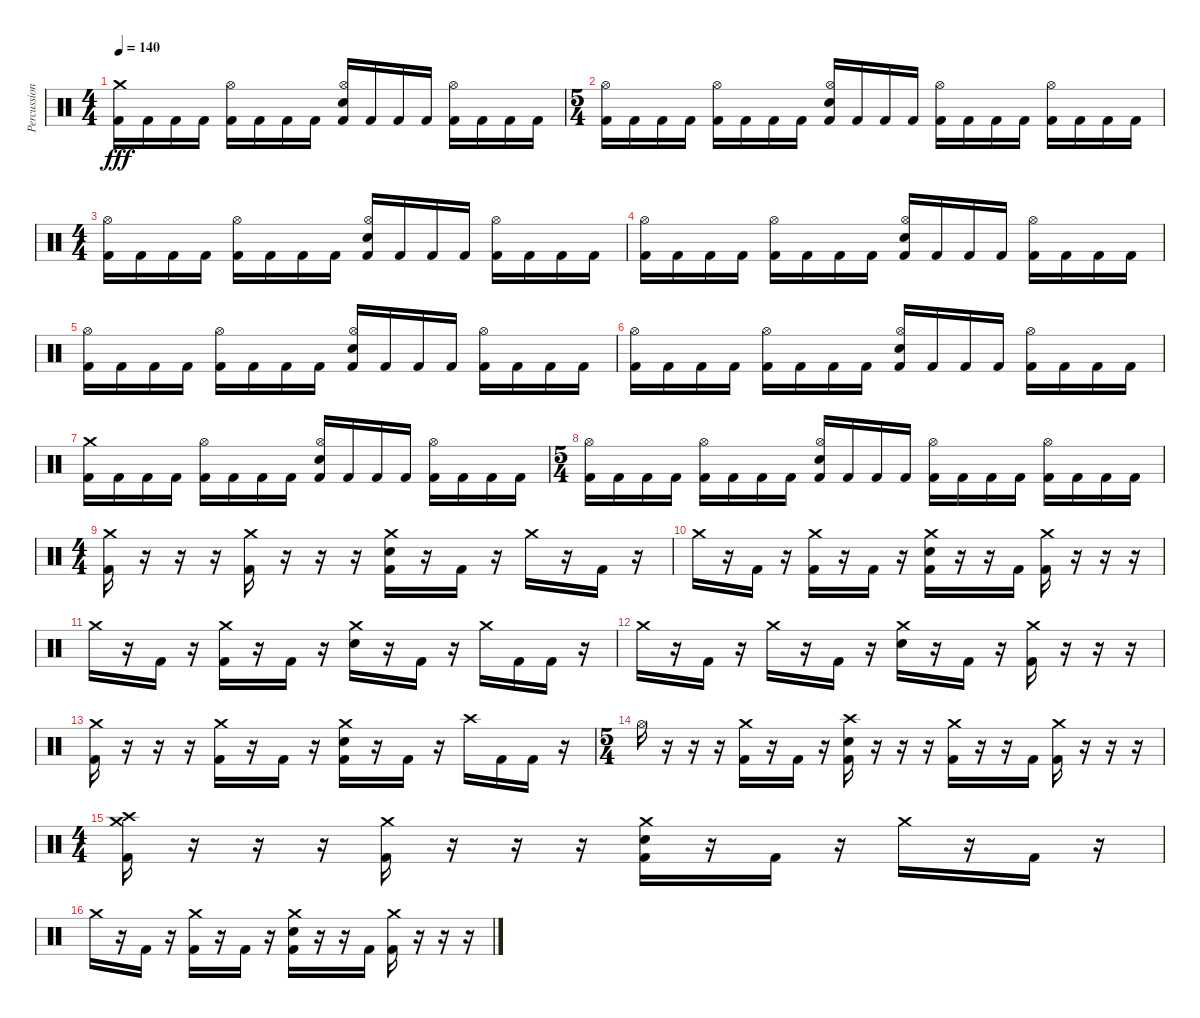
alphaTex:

\track ("Percussion" "Percussion") {instrument percussion bank 84}
\staff {score}
\articulation defaults
\ts (4 4)
\tempo 140
\clef neutral
\ks c
("Crash medium (hit)" "Kick (hit) 2").16{dy fff} "Kick (hit) 2".16 "Kick (hit) 2".16 "Kick (hit) 2".16 ("Hi-Hat (open)" "Kick (hit) 2").16 "Kick (hit) 2".16 "Kick (hit) 2".16 "Kick (hit) 2".16 ("Hi-Hat (open)" "Electric Snare (hit)" "Kick (hit) 2").16 "Kick (hit) 2".16 "Kick (hit) 2".16 "Kick (hit) 2".16 ("Hi-Hat (open)" "Kick (hit) 2").16 "Kick (hit) 2".16 "Kick (hit) 2".16 "Kick (hit) 2".16 |
\ts (5 4)
("Hi-Hat (open)" "Kick (hit) 2").16 "Kick (hit) 2".16 "Kick (hit) 2".16 "Kick (hit) 2".16 ("Hi-Hat (open)" "Kick (hit) 2").16 "Kick (hit) 2".16 "Kick (hit) 2".16 "Kick (hit) 2".16 ("Hi-Hat (open)" "Electric Snare (hit)" "Kick (hit) 2").16 "Kick (hit) 2".16 "Kick (hit) 2".16 "Kick (hit) 2".16 ("Hi-Hat (open)" "Kick (hit) 2").16 "Kick (hit) 2".16 "Kick (hit) 2".16 "Kick (hit) 2".16 ("Hi-Hat (open)" "Kick (hit) 2").16 "Kick (hit) 2".16 "Kick (hit) 2".16 "Kick (hit) 2".16 |
\ts (4 4)
("Hi-Hat (open)" "Kick (hit) 2").16 "Kick (hit) 2".16 "Kick (hit) 2".16 "Kick (hit) 2".16 ("Hi-Hat (open)" "Kick (hit) 2").16 "Kick (hit) 2".16 "Kick (hit) 2".16 "Kick (hit) 2".16 ("Hi-Hat (open)" "Electric Snare (hit)" "Kick (hit) 2").16 "Kick (hit) 2".16 "Kick (hit) 2".16 "Kick (hit) 2".16 ("Hi-Hat (open)" "Kick (hit) 2").16 "Kick (hit) 2".16 "Kick (hit) 2".16 "Kick (hit) 2".16 |
("Hi-Hat (open)" "Kick (hit) 2").16 "Kick (hit) 2".16 "Kick (hit) 2".16 "Kick (hit) 2".16 ("Hi-Hat (open)" "Kick (hit) 2").16 "Kick (hit) 2".16 "Kick (hit) 2".16 "Kick (hit) 2".16 ("Hi-Hat (open)" "Electric Snare (hit)" "Kick (hit) 2").16 "Kick (hit) 2".16 "Kick (hit) 2".16 "Kick (hit) 2".16 ("Hi-Hat (open)" "Kick (hit) 2").16 "Kick (hit) 2".16 "Kick (hit) 2".16 "Kick (hit) 2".16 |
("Hi-Hat (open)" "Kick (hit) 2").16 "Kick (hit) 2".16 "Kick (hit) 2".16 "Kick (hit) 2".16 ("Hi-Hat (open)" "Kick (hit) 2").16 "Kick (hit) 2".16 "Kick (hit) 2".16 "Kick (hit) 2".16 ("Hi-Hat (open)" "Electric Snare (hit)" "Kick (hit) 2").16 "Kick (hit) 2".16 "Kick (hit) 2".16 "Kick (hit) 2".16 ("Hi-Hat (open)" "Kick (hit) 2").16 "Kick (hit) 2".16 "Kick (hit) 2".16 "Kick (hit) 2".16 |
("Hi-Hat (open)" "Kick (hit) 2").16 "Kick (hit) 2".16 "Kick (hit) 2".16 "Kick (hit) 2".16 ("Hi-Hat (open)" "Kick (hit) 2").16 "Kick (hit) 2".16 "Kick (hit) 2".16 "Kick (hit) 2".16 ("Hi-Hat (open)" "Electric Snare (hit)" "Kick (hit) 2").16 "Kick (hit) 2".16 "Kick (hit) 2".16 "Kick (hit) 2".16 ("Hi-Hat (open)" "Kick (hit) 2").16 "Kick (hit) 2".16 "Kick (hit) 2".16 "Kick (hit) 2".16 |
("Crash medium (hit)" "Kick (hit) 2").16 "Kick (hit) 2".16 "Kick (hit) 2".16 "Kick (hit) 2".16 ("Hi-Hat (open)" "Kick (hit) 2").16 "Kick (hit) 2".16 "Kick (hit) 2".16 "Kick (hit) 2".16 ("Hi-Hat (open)" "Electric Snare (hit)" "Kick (hit) 2").16 "Kick (hit) 2".16 "Kick (hit) 2".16 "Kick (hit) 2".16 ("Hi-Hat (open)" "Kick (hit) 2").16 "Kick (hit) 2".16 "Kick (hit) 2".16 "Kick (hit) 2".16 |
\ts (5 4)
("Hi-Hat (open)" "Kick (hit) 2").16 "Kick (hit) 2".16 "Kick (hit) 2".16 "Kick (hit) 2".16 ("Hi-Hat (open)" "Kick (hit) 2").16 "Kick (hit) 2".16 "Kick (hit) 2".16 "Kick (hit) 2".16 ("Hi-Hat (open)" "Electric Snare (hit)" "Kick (hit) 2").16 "Kick (hit) 2".16 "Kick (hit) 2".16 "Kick (hit) 2".16 ("Hi-Hat (open)" "Kick (hit) 2").16 "Kick (hit) 2".16 "Kick (hit) 2".16 "Kick (hit) 2".16 ("Hi-Hat (open)" "Kick (hit) 2").16 "Kick (hit) 2".16 "Kick (hit) 2".16 "Kick (hit) 2".16 |
\ts (4 4)
("Crash medium (hit)" "Kick (hit) 2").16 r.16 r.16 r.16 ("Crash medium (hit)" "Kick (hit) 2").16 r.16 r.16 r.16 ("Crash medium (hit)" "Electric Snare (hit)" "Kick (hit) 2").16 r.16 "Kick (hit) 2".16 r.16 "Crash medium (hit)".16 r.16 "Kick (hit) 2".16 r.16 |
"Crash medium (hit)".16 r.16 "Kick (hit) 2".16 r.16 ("Crash medium (hit)" "Kick (hit) 2").16 r.16 "Kick (hit) 2".16 r.16 ("Crash medium (hit)" "Electric Snare (hit)" "Kick (hit) 2").16 r.16 r.16 "Kick (hit) 2".16 ("Crash medium (hit)" "Kick (hit) 2").16 r.16 r.16 r.16 |
"Crash medium (hit)".16 r.16 "Kick (hit) 2".16 r.16 ("Crash medium (hit)" "Kick (hit) 2").16 r.16 "Kick (hit) 2".16 r.16 ("Crash medium (hit)" "Electric Snare (hit)").16 r.16 "Kick (hit) 2".16 r.16 "Crash medium (hit)".16 "Kick (hit) 2".16 "Kick (hit) 2".16 r.16 |
"Crash medium (hit)".16 r.16 "Kick (hit) 2".16 r.16 "Crash medium (hit)".16 r.16 "Kick (hit) 2".16 r.16 ("Crash medium (hit)" "Electric Snare (hit)").16 r.16 "Kick (hit) 2".16 r.16 ("Crash medium (hit)" "Kick (hit) 2").16 r.16 r.16 r.16 |
("Crash medium (hit)" "Kick (hit) 2").16 r.16 r.16 r.16 ("Crash medium (hit)" "Kick (hit) 2").16 r.16 "Kick (hit) 2".16 r.16 ("Crash medium (hit)" "Electric Snare (hit)" "Kick (hit) 2").16 r.16 "Kick (hit) 2".16 r.16 "Crash high (hit)".16 "Kick (hit) 2".16 "Kick (hit) 2".16 r.16 |
\ts (5 4)
"Hi-Hat (open)".16 r.16 r.16 r.16 ("Crash medium (hit)" "Kick (hit) 2").16 r.16 "Kick (hit) 2".16 r.16 ("Crash high (hit)" "Electric Snare (hit)" "Kick (hit) 2").16 r.16 r.16 r.16 ("Crash medium (hit)" "Kick (hit) 2").16 r.16 r.16 "Kick (hit) 2".16 ("Crash medium (hit)" "Kick (hit) 2").16 r.16 r.16 r.16 |
\ts (4 4)
("Crash high (hit)" "Crash medium (hit)" "Kick (hit) 2").16 r.16 r.16 r.16 ("Crash medium (hit)" "Kick (hit) 2").16 r.16 r.16 r.16 ("Crash medium (hit)" "Electric Snare (hit)" "Kick (hit) 2").16 r.16 "Kick (hit) 2".16 r.16 "Crash medium (hit)".16 r.16 "Kick (hit) 2".16 r.16 |
"Crash medium (hit)".16 r.16 "Kick (hit) 2".16 r.16 ("Crash medium (hit)" "Kick (hit) 2").16 r.16 "Kick (hit) 2".16 r.16 ("Crash medium (hit)" "Electric Snare (hit)" "Kick (hit) 2").16 r.16 r.16 "Kick (hit) 2".16 ("Crash medium (hit)" "Kick (hit) 2").16 r.16 r.16 r.16
